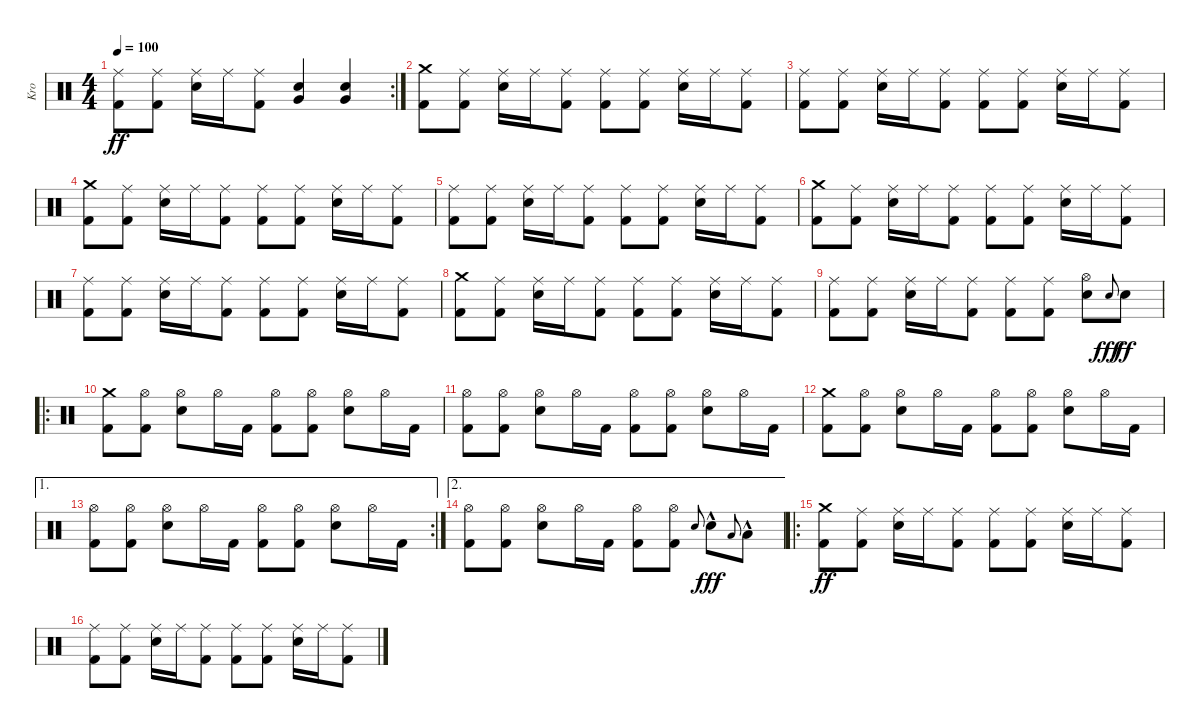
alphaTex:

\track ("Kro" "Kro") {instrument percussion}
\staff {score}
\articulation defaults
\rc 2
\ts (4 4)
\tempo 100
\clef neutral
\ks c
("Ride (middle)" "Kick (hit) 2").8{dy ff} ("Ride (middle)" "Kick (hit) 2").8 ("Ride (middle)" "Electric Snare (hit)").16 "Ride (middle)".16 ("Ride (middle)" "Kick (hit) 2").8 ("Electric Snare (hit)" "Very Low Tom (hit)").4 ("Electric Snare (hit)" "Very Low Tom (hit)").4 |
("Crash medium (hit)" "Kick (hit) 2").8 ("Ride (middle)" "Kick (hit) 2").8 ("Ride (middle)" "Electric Snare (hit)").16 "Ride (middle)".16 ("Ride (middle)" "Kick (hit) 2").8 ("Ride (middle)" "Kick (hit) 2").8 ("Ride (middle)" "Kick (hit) 2").8 ("Ride (middle)" "Electric Snare (hit)").16 "Ride (middle)".16 ("Ride (middle)" "Kick (hit) 2").8 |
("Ride (middle)" "Kick (hit) 2").8 ("Ride (middle)" "Kick (hit) 2").8 ("Ride (middle)" "Electric Snare (hit)").16 "Ride (middle)".16 ("Ride (middle)" "Kick (hit) 2").8 ("Ride (middle)" "Kick (hit) 2").8 ("Ride (middle)" "Kick (hit) 2").8 ("Ride (middle)" "Electric Snare (hit)").16 "Ride (middle)".16 ("Ride (middle)" "Kick (hit) 2").8 |
("Crash medium (hit)" "Kick (hit) 2").8 ("Ride (middle)" "Kick (hit) 2").8 ("Ride (middle)" "Electric Snare (hit)").16 "Ride (middle)".16 ("Ride (middle)" "Kick (hit) 2").8 ("Ride (middle)" "Kick (hit) 2").8 ("Ride (middle)" "Kick (hit) 2").8 ("Ride (middle)" "Electric Snare (hit)").16 "Ride (middle)".16 ("Ride (middle)" "Kick (hit) 2").8 |
("Ride (middle)" "Kick (hit) 2").8 ("Ride (middle)" "Kick (hit) 2").8 ("Ride (middle)" "Electric Snare (hit)").16 "Ride (middle)".16 ("Ride (middle)" "Kick (hit) 2").8 ("Ride (middle)" "Kick (hit) 2").8 ("Ride (middle)" "Kick (hit) 2").8 ("Ride (middle)" "Electric Snare (hit)").16 "Ride (middle)".16 ("Ride (middle)" "Kick (hit) 2").8 |
("Crash medium (hit)" "Kick (hit) 2").8 ("Ride (middle)" "Kick (hit) 2").8 ("Ride (middle)" "Electric Snare (hit)").16 "Ride (middle)".16 ("Ride (middle)" "Kick (hit) 2").8 ("Ride (middle)" "Kick (hit) 2").8 ("Ride (middle)" "Kick (hit) 2").8 ("Ride (middle)" "Electric Snare (hit)").16 "Ride (middle)".16 ("Ride (middle)" "Kick (hit) 2").8 |
("Ride (middle)" "Kick (hit) 2").8 ("Ride (middle)" "Kick (hit) 2").8 ("Ride (middle)" "Electric Snare (hit)").16 "Ride (middle)".16 ("Ride (middle)" "Kick (hit) 2").8 ("Ride (middle)" "Kick (hit) 2").8 ("Ride (middle)" "Kick (hit) 2").8 ("Ride (middle)" "Electric Snare (hit)").16 "Ride (middle)".16 ("Ride (middle)" "Kick (hit) 2").8 |
("Crash medium (hit)" "Kick (hit) 2").8 ("Ride (middle)" "Kick (hit) 2").8 ("Ride (middle)" "Electric Snare (hit)").16 "Ride (middle)".16 ("Ride (middle)" "Kick (hit) 2").8 ("Ride (middle)" "Kick (hit) 2").8 ("Ride (middle)" "Kick (hit) 2").8 ("Ride (middle)" "Electric Snare (hit)").16 "Ride (middle)".16 ("Ride (middle)" "Kick (hit) 2").8 |
("Ride (middle)" "Kick (hit) 2").8 ("Ride (middle)" "Kick (hit) 2").8 ("Ride (middle)" "Electric Snare (hit)").16 "Ride (middle)".16 ("Ride (middle)" "Kick (hit) 2").8 ("Ride (middle)" "Kick (hit) 2").8 ("Ride (middle)" "Kick (hit) 2").8 ("Hi-Hat (open)" "Electric Snare (hit)").8 "Electric Snare (hit)".8{gr onbeat dy fff} "Electric Snare (hit)".8{dy ff} |
\ro
("Crash medium (hit)" "Kick (hit) 2").8 ("Hi-Hat (open)" "Kick (hit) 2").8 ("Hi-Hat (open)" "Electric Snare (hit)").8 "Hi-Hat (open)".16 "Kick (hit) 2".16 ("Hi-Hat (open)" "Kick (hit) 2").8 ("Hi-Hat (open)" "Kick (hit) 2").8 ("Hi-Hat (open)" "Electric Snare (hit)").8 "Hi-Hat (open)".16 "Kick (hit) 2".16 |
("Hi-Hat (open)" "Kick (hit) 2").8 ("Hi-Hat (open)" "Kick (hit) 2").8 ("Hi-Hat (open)" "Electric Snare (hit)").8 "Hi-Hat (open)".16 "Kick (hit) 2".16 ("Hi-Hat (open)" "Kick (hit) 2").8 ("Hi-Hat (open)" "Kick (hit) 2").8 ("Hi-Hat (open)" "Electric Snare (hit)").8 "Hi-Hat (open)".16 "Kick (hit) 2".16 |
("Crash medium (hit)" "Kick (hit) 2").8 ("Hi-Hat (open)" "Kick (hit) 2").8 ("Hi-Hat (open)" "Electric Snare (hit)").8 "Hi-Hat (open)".16 "Kick (hit) 2".16 ("Hi-Hat (open)" "Kick (hit) 2").8 ("Hi-Hat (open)" "Kick (hit) 2").8 ("Hi-Hat (open)" "Electric Snare (hit)").8 "Hi-Hat (open)".16 "Kick (hit) 2".16 |
\ae 1
\rc 2
("Hi-Hat (open)" "Kick (hit) 2").8 ("Hi-Hat (open)" "Kick (hit) 2").8 ("Hi-Hat (open)" "Electric Snare (hit)").8 "Hi-Hat (open)".16 "Kick (hit) 2".16 ("Hi-Hat (open)" "Kick (hit) 2").8 ("Hi-Hat (open)" "Kick (hit) 2").8 ("Hi-Hat (open)" "Electric Snare (hit)").8 "Hi-Hat (open)".16 "Kick (hit) 2".16 |
\ae 2
("Hi-Hat (open)" "Kick (hit) 2").8 ("Hi-Hat (open)" "Kick (hit) 2").8 ("Hi-Hat (open)" "Electric Snare (hit)").8 "Hi-Hat (open)".16 "Kick (hit) 2".16 ("Hi-Hat (open)" "Kick (hit) 2").8 ("Hi-Hat (open)" "Kick (hit) 2").8 "Electric Snare (hit)".8{gr onbeat} "Electric Snare (hit)"{hac}.8{dy fff} "Low Tom (hit)".8{gr onbeat} "Low Tom (hit)"{hac}.8 |
\ro
("Crash medium (hit)" "Kick (hit) 2").8{dy ff} ("Ride (middle)" "Kick (hit) 2").8 ("Ride (middle)" "Electric Snare (hit)").16 "Ride (middle)".16 ("Ride (middle)" "Kick (hit) 2").8 ("Ride (middle)" "Kick (hit) 2").8 ("Ride (middle)" "Kick (hit) 2").8 ("Ride (middle)" "Electric Snare (hit)").16 "Ride (middle)".16 ("Ride (middle)" "Kick (hit) 2").8 |
("Ride (middle)" "Kick (hit) 2").8 ("Ride (middle)" "Kick (hit) 2").8 ("Ride (middle)" "Electric Snare (hit)").16 "Ride (middle)".16 ("Ride (middle)" "Kick (hit) 2").8 ("Ride (middle)" "Kick (hit) 2").8 ("Ride (middle)" "Kick (hit) 2").8 ("Ride (middle)" "Electric Snare (hit)").16 "Ride (middle)".16 ("Ride (middle)" "Kick (hit) 2").8
